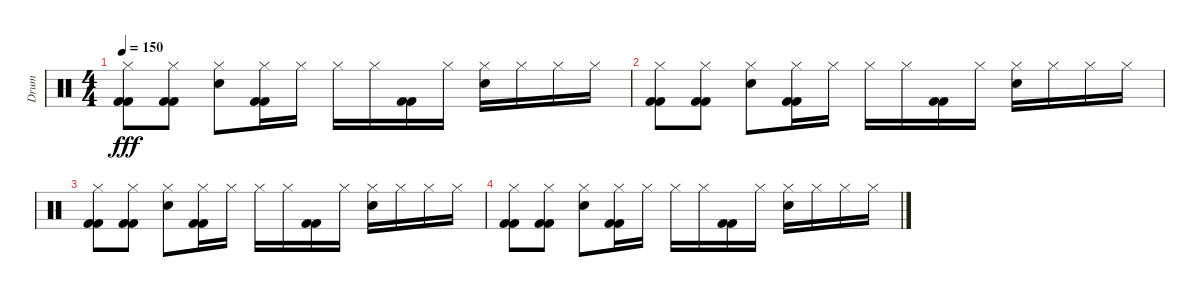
\track ("Drum" "Drum") {instrument percussion}
\staff {score}
\articulation defaults
\ts (4 4)
\tempo 150
\clef neutral
\ks c
("Hi-Hat (closed)" "Kick (hit) 2" "Kick (hit) 2").8{dy fff} ("Hi-Hat (closed)" "Kick (hit) 2" "Kick (hit) 2").8 ("Hi-Hat (closed)" "Electric Snare (hit)").8 ("Hi-Hat (closed)" "Kick (hit) 2" "Kick (hit) 2").16 "Hi-Hat (closed)".16 "Hi-Hat (closed)".16 "Hi-Hat (closed)".16 ("Kick (hit) 2" "Kick (hit) 2").16 "Hi-Hat (closed)".16 ("Hi-Hat (closed)" "Electric Snare (hit)").16 "Hi-Hat (closed)".16 "Hi-Hat (closed)".16 "Hi-Hat (closed)".16 |
("Hi-Hat (closed)" "Kick (hit) 2" "Kick (hit) 2").8 ("Hi-Hat (closed)" "Kick (hit) 2" "Kick (hit) 2").8 ("Hi-Hat (closed)" "Electric Snare (hit)").8 ("Hi-Hat (closed)" "Kick (hit) 2" "Kick (hit) 2").16 "Hi-Hat (closed)".16 "Hi-Hat (closed)".16 "Hi-Hat (closed)".16 ("Kick (hit) 2" "Kick (hit) 2").16 "Hi-Hat (closed)".16 ("Hi-Hat (closed)" "Electric Snare (hit)").16 "Hi-Hat (closed)".16 "Hi-Hat (closed)".16 "Hi-Hat (closed)".16 |
("Hi-Hat (closed)" "Kick (hit) 2" "Kick (hit) 2").8 ("Hi-Hat (closed)" "Kick (hit) 2" "Kick (hit) 2").8 ("Hi-Hat (closed)" "Electric Snare (hit)").8 ("Hi-Hat (closed)" "Kick (hit) 2" "Kick (hit) 2").16 "Hi-Hat (closed)".16 "Hi-Hat (closed)".16 "Hi-Hat (closed)".16 ("Kick (hit) 2" "Kick (hit) 2").16 "Hi-Hat (closed)".16 ("Hi-Hat (closed)" "Electric Snare (hit)").16 "Hi-Hat (closed)".16 "Hi-Hat (closed)".16 "Hi-Hat (closed)".16 |
("Hi-Hat (closed)" "Kick (hit) 2" "Kick (hit) 2").8 ("Hi-Hat (closed)" "Kick (hit) 2" "Kick (hit) 2").8 ("Hi-Hat (closed)" "Electric Snare (hit)").8 ("Hi-Hat (closed)" "Kick (hit) 2" "Kick (hit) 2").16 "Hi-Hat (closed)".16 "Hi-Hat (closed)".16 "Hi-Hat (closed)".16 ("Kick (hit) 2" "Kick (hit) 2").16 "Hi-Hat (closed)".16 ("Hi-Hat (closed)" "Electric Snare (hit)").16 "Hi-Hat (closed)".16 "Hi-Hat (closed)".16 "Hi-Hat (closed)".16
